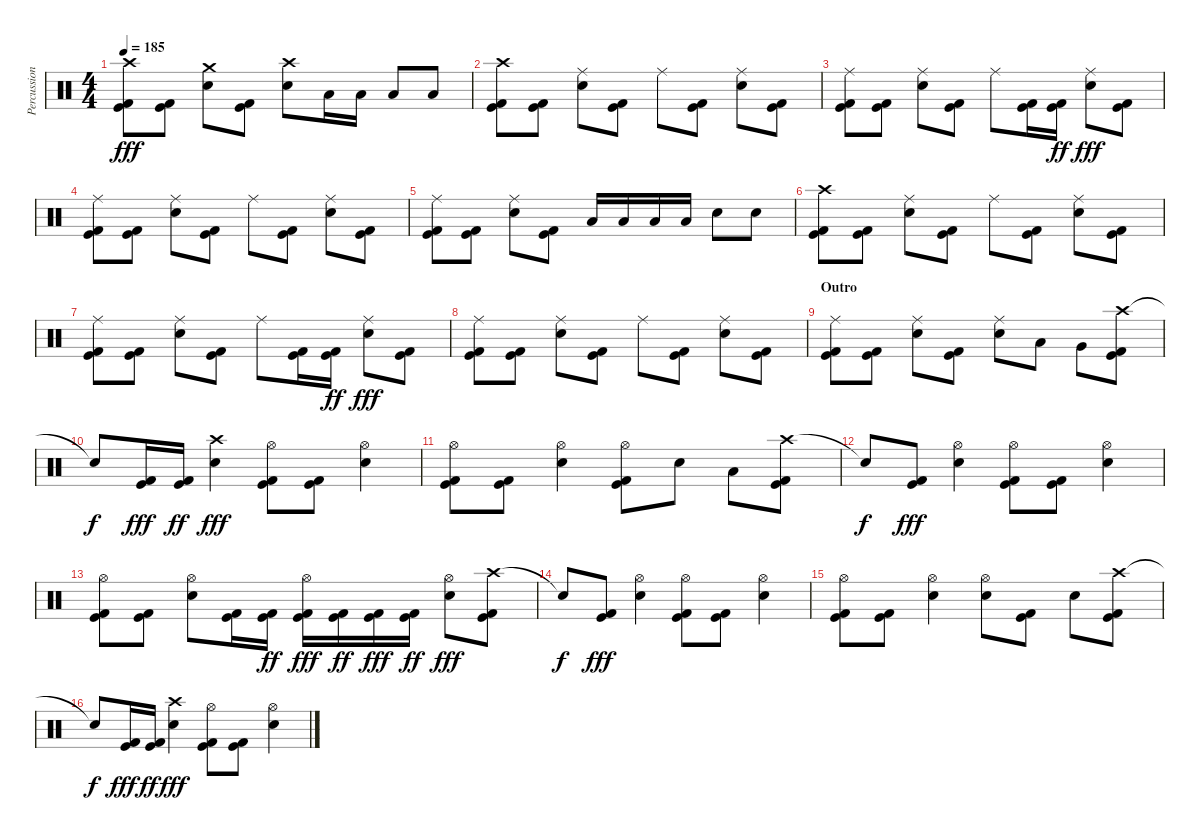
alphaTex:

\track ("Percussion" "Percussion") {instrument percussion}
\staff {score}
\articulation defaults
\ts (4 4)
\tempo 185
\clef neutral
\ks c
("Crash high (hit)" "Kick (hit)" "Kick (hit) 2").8{dy fff} ("Kick (hit)" "Kick (hit) 2").8 ("Crash medium (hit)" "Snare (hit) 2").8 ("Kick (hit)" "Kick (hit) 2").8 ("Crash high (hit)" "Snare (hit) 2").8 "Low Tom (hit)".16 "Low Tom (hit)".16 "Low Floor Tom (hit)".8 "Low Floor Tom (hit)".8 |
("Crash high (hit)" "Kick (hit)" "Kick (hit) 2").8 ("Kick (hit)" "Kick (hit) 2").8 ("Ride (middle)" "Snare (hit) 2").8 ("Kick (hit)" "Kick (hit) 2").8 "Ride (middle)".8 ("Kick (hit)" "Kick (hit) 2").8 ("Ride (middle)" "Snare (hit) 2").8 ("Kick (hit)" "Kick (hit) 2").8 |
("Ride (middle)" "Kick (hit)" "Kick (hit) 2").8 ("Kick (hit)" "Kick (hit) 2").8 ("Ride (middle)" "Snare (hit) 2").8 ("Kick (hit)" "Kick (hit) 2").8 "Ride (middle)".8 ("Kick (hit)" "Kick (hit) 2").16 ("Kick (hit)" "Kick (hit) 2").16{dy ff} ("Ride (middle)" "Snare (hit) 2").8{dy fff} ("Kick (hit)" "Kick (hit) 2").8 |
("Ride (middle)" "Kick (hit)" "Kick (hit) 2").8 ("Kick (hit)" "Kick (hit) 2").8 ("Ride (middle)" "Snare (hit) 2").8 ("Kick (hit)" "Kick (hit) 2").8 "Ride (middle)".8 ("Kick (hit)" "Kick (hit) 2").8 ("Ride (middle)" "Snare (hit) 2").8 ("Kick (hit)" "Kick (hit) 2").8 |
("Ride (middle)" "Kick (hit)" "Kick (hit) 2").8 ("Kick (hit)" "Kick (hit) 2").8 ("Ride (middle)" "Snare (hit) 2").8 ("Kick (hit)" "Kick (hit) 2").8 "Low Tom (hit)".16 "Low Tom (hit)".16 "Low Tom (hit)".16 "Low Tom (hit)".16 "Snare (hit) 2".8 "Snare (hit) 2".8 |
("Crash high (hit)" "Kick (hit)" "Kick (hit) 2").8 ("Kick (hit)" "Kick (hit) 2").8 ("Ride (middle)" "Snare (hit) 2").8 ("Kick (hit)" "Kick (hit) 2").8 "Ride (middle)".8 ("Kick (hit)" "Kick (hit) 2").8 ("Ride (middle)" "Snare (hit) 2").8 ("Kick (hit)" "Kick (hit) 2").8 |
("Ride (middle)" "Kick (hit)" "Kick (hit) 2").8 ("Kick (hit)" "Kick (hit) 2").8 ("Ride (middle)" "Snare (hit) 2").8 ("Kick (hit)" "Kick (hit) 2").8 "Ride (middle)".8 ("Kick (hit)" "Kick (hit) 2").16 ("Kick (hit)" "Kick (hit) 2").16{dy ff} ("Ride (middle)" "Snare (hit) 2").8{dy fff} ("Kick (hit)" "Kick (hit) 2").8 |
("Ride (middle)" "Kick (hit)" "Kick (hit) 2").8 ("Kick (hit)" "Kick (hit) 2").8 ("Ride (middle)" "Snare (hit) 2").8 ("Kick (hit)" "Kick (hit) 2").8 "Ride (middle)".8 ("Kick (hit)" "Kick (hit) 2").8 ("Ride (middle)" "Snare (hit) 2").8 ("Kick (hit)" "Kick (hit) 2").8 |
\section ("" "Outro")
("Ride (middle)" "Kick (hit)" "Kick (hit) 2").8 ("Kick (hit)" "Kick (hit) 2").8 ("Ride (middle)" "Snare (hit) 2").8 ("Kick (hit)" "Kick (hit) 2").8 ("Ride (middle)" "Snare (hit) 2").8 "Low Tom (hit)".8 "Very Low Tom (hit)".8 ("Crash high (hit)" "Kick (hit)" "Kick (hit) 2").8 |
"Snare (hit)"{t}.8{dy f} ("Kick (hit)" "Kick (hit) 2").16{dy fff} ("Kick (hit)" "Kick (hit) 2").16{dy ff} ("Crash high (hit)" "Snare (hit) 2").4{dy fff} ("Hi-Hat (open)" "Kick (hit)" "Kick (hit) 2").8 ("Kick (hit)" "Kick (hit) 2").8 ("Hi-Hat (open)" "Snare (hit) 2").4 |
("Hi-Hat (open)" "Kick (hit)" "Kick (hit) 2").8 ("Kick (hit)" "Kick (hit) 2").8 ("Hi-Hat (open)" "Snare (hit) 2").4 ("Hi-Hat (open)" "Kick (hit)" "Kick (hit) 2").8 "Snare (hit) 2".8 "Low Tom (hit)".8 ("Crash high (hit)" "Kick (hit)" "Kick (hit) 2").8 |
"Snare (hit)"{t}.8{dy f} ("Kick (hit)" "Kick (hit) 2").8{dy fff} ("Hi-Hat (open)" "Snare (hit) 2").4 ("Hi-Hat (open)" "Kick (hit)" "Kick (hit) 2").8 ("Kick (hit)" "Kick (hit) 2").8 ("Hi-Hat (open)" "Snare (hit) 2").4 |
("Hi-Hat (open)" "Kick (hit)" "Kick (hit) 2").8 ("Kick (hit)" "Kick (hit) 2").8 ("Hi-Hat (open)" "Snare (hit) 2").8 ("Kick (hit)" "Kick (hit) 2").16 ("Kick (hit)" "Kick (hit) 2").16{dy ff} ("Hi-Hat (open)" "Kick (hit)" "Kick (hit) 2").16{dy fff} ("Kick (hit)" "Kick (hit) 2").16{dy ff} ("Kick (hit)" "Kick (hit) 2").16{dy fff} ("Kick (hit)" "Kick (hit) 2").16{dy ff} ("Hi-Hat (open)" "Snare (hit) 2").8{dy fff} ("Crash high (hit)" "Kick (hit)" "Kick (hit) 2").8 |
"Snare (hit)"{t}.8{dy f} ("Kick (hit)" "Kick (hit) 2").8{dy fff} ("Hi-Hat (open)" "Snare (hit) 2").4 ("Hi-Hat (open)" "Kick (hit)" "Kick (hit) 2").8 ("Kick (hit)" "Kick (hit) 2").8 ("Hi-Hat (open)" "Snare (hit) 2").4 |
("Hi-Hat (open)" "Kick (hit)" "Kick (hit) 2").8 ("Kick (hit)" "Kick (hit) 2").8 ("Hi-Hat (open)" "Snare (hit) 2").4 ("Hi-Hat (open)" "Snare (hit) 2").8 ("Kick (hit)" "Kick (hit) 2").8 "Snare (hit) 2".8 ("Crash high (hit)" "Kick (hit)" "Kick (hit) 2").8 |
"Snare (hit)"{t}.8{dy f} ("Kick (hit)" "Kick (hit) 2").16{dy fff} ("Kick (hit)" "Kick (hit) 2").16{dy ff} ("Crash high (hit)" "Snare (hit) 2").4{dy fff} ("Hi-Hat (open)" "Kick (hit)" "Kick (hit) 2").8 ("Kick (hit)" "Kick (hit) 2").8 ("Hi-Hat (open)" "Snare (hit) 2").4
